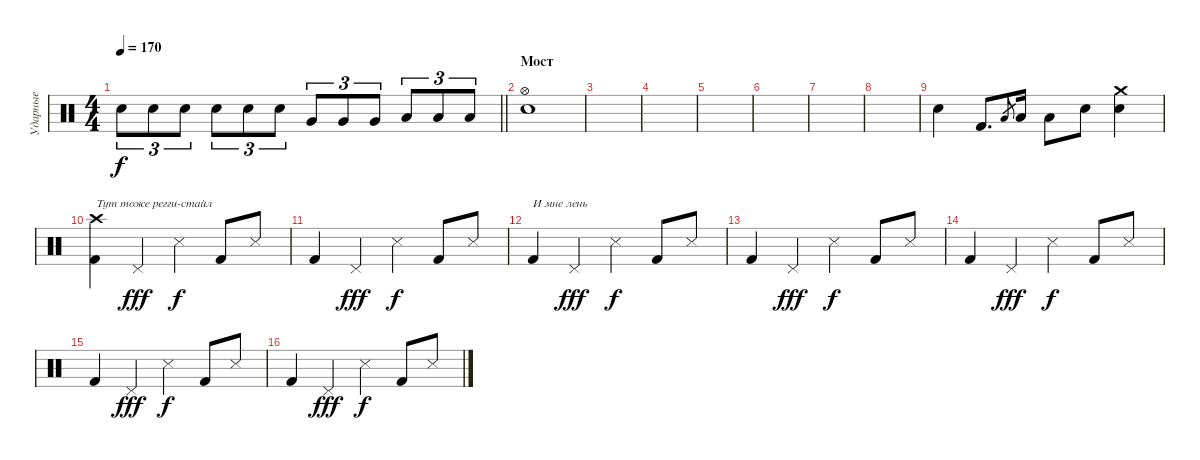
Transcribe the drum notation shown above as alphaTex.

\track ("Ударные" "Ударные") {instrument percussion}
\staff {score}
\articulation defaults
\ts (4 4)
\tempo 170
\clef neutral
\barLineRight lightlight
\ks c "Electric Snare (hit)".8{tu (3 2) dy f} "Electric Snare (hit)".8{tu (3 2)} "Electric Snare (hit)".8{tu (3 2)} "Electric Snare (hit)".8{tu (3 2)} "Electric Snare (hit)".8{tu (3 2)} "Electric Snare (hit)".8{tu (3 2)} "Very Low Tom (hit)".8{tu (3 2)} "Very Low Tom (hit)".8{tu (3 2)} "Very Low Tom (hit)".8{tu (3 2)} "Low Floor Tom (hit)".8{tu (3 2)} "Low Floor Tom (hit)".8{tu (3 2)} "Low Floor Tom (hit)".8{tu (3 2)}
|
\section ("" "Мост")
("Electric Snare (hit)" "Hi-Hat (open)").1 |
|
|
|
|
|
|
"Snare (hit) 2".4 "Kick (hit) 2".8{d} "Low Tom (hit)".8{gr} "Low Tom (hit)".16 "Low Tom (hit)".8 "Electric Snare (hit)".8 ("Electric Snare (hit)" "Crash medium (hit)").4 |
("Kick (hit) 2" "Crash high (hit)").4{txt "Тут тоже регги-стайл"} "Pedal Hi-Hat (hit)".4{dy fff} "Snare (side stick) 3".4{dy f} "Kick (hit) 2".8 "Snare (side stick) 3".8 |
"Kick (hit) 2".4 "Pedal Hi-Hat (hit)".4{dy fff} "Snare (side stick) 3".4{dy f} "Kick (hit) 2".8 "Snare (side stick) 3".8 |
"Kick (hit) 2".4{txt "И мне лень"} "Pedal Hi-Hat (hit)".4{dy fff} "Snare (side stick) 3".4{dy f} "Kick (hit) 2".8 "Snare (side stick) 3".8 |
"Kick (hit) 2".4 "Pedal Hi-Hat (hit)".4{dy fff} "Snare (side stick) 3".4{dy f} "Kick (hit) 2".8 "Snare (side stick) 3".8 |
"Kick (hit) 2".4 "Pedal Hi-Hat (hit)".4{dy fff} "Snare (side stick) 3".4{dy f} "Kick (hit) 2".8 "Snare (side stick) 3".8 |
"Kick (hit) 2".4 "Pedal Hi-Hat (hit)".4{dy fff} "Snare (side stick) 3".4{dy f} "Kick (hit) 2".8 "Snare (side stick) 3".8 |
"Kick (hit) 2".4 "Pedal Hi-Hat (hit)".4{dy fff} "Snare (side stick) 3".4{dy f} "Kick (hit) 2".8 "Snare (side stick) 3".8
